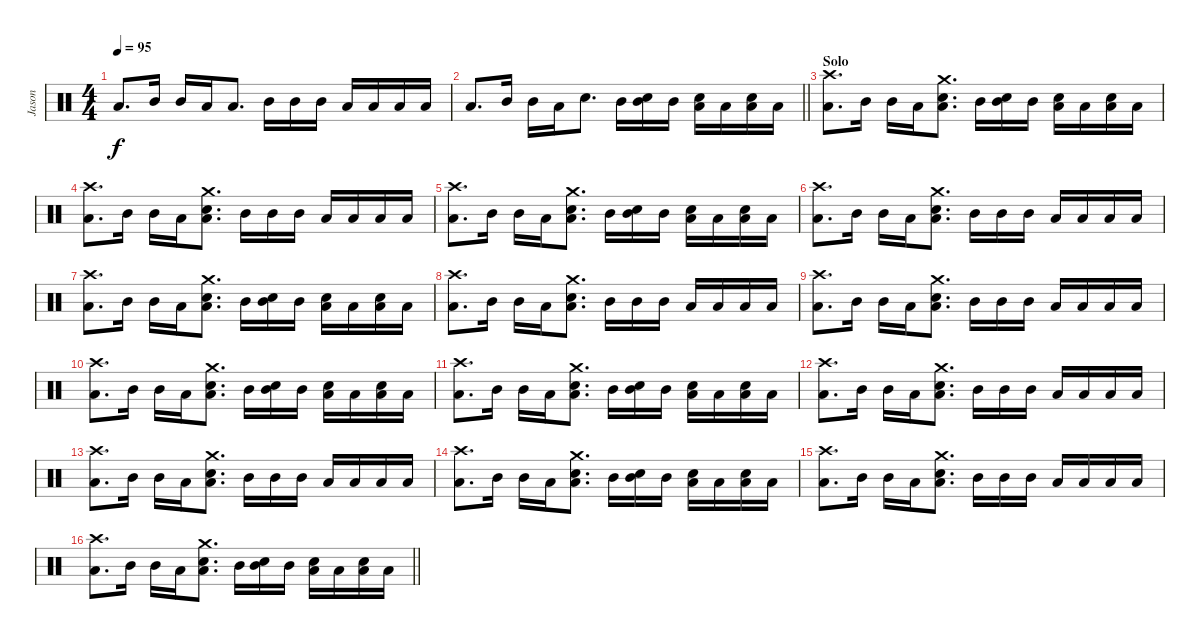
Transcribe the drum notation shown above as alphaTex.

\track ("Jason" "Jason") {instrument percussion}
\staff {score}
\articulation defaults
\ts (4 4)
\tempo 95
\clef neutral
\ks c "Low Floor Tom (hit)".8{d dy f} "Mid Tom (hit)".16 "Mid Tom (hit)".16 "Low Tom (hit)".16 "Low Floor Tom (hit)".8{d} "Mid Tom (hit)".16 "Mid Tom (hit)".16 "Mid Tom (hit)".16 "Low Tom (hit)".16 "Low Tom (hit)".16 "Low Tom (hit)".16 "Low Tom (hit)".16
|
\barLineRight lightlight "Low Floor Tom (hit)".8{d} "Mid Tom (hit)".16 "Mid Tom (hit)".16 "Low Tom (hit)".16 "Electric Snare (hit)".8{d} "Mid Tom (hit)".16
("Mid Tom (hit)" "Electric Snare (hit)").16 "Mid Tom (hit)".16 ("Low Tom (hit)" "Electric Snare (hit)").16 "Low Tom (hit)".16 ("Low Tom (hit)" "Electric Snare (hit)").16 "Low Tom (hit)".16 |
\section ("" "Solo")
("Crash high (hit)" "Low Floor Tom (hit)").8{d} "Mid Tom (hit)".16 "Mid Tom (hit)".16 "Low Tom (hit)".16 ("Crash medium (hit)" "Electric Snare (hit)" "Low Floor Tom (hit)").8{d} "Mid Tom (hit)".16 ("Mid Tom (hit)" "Electric Snare (hit)").16 "Mid Tom (hit)".16 ("Low Tom (hit)" "Electric Snare (hit)").16 "Low Tom (hit)".16 ("Low Tom (hit)" "Electric Snare (hit)").16 "Low Tom (hit)".16 |
("Crash high (hit)" "Low Floor Tom (hit)").8{d} "Mid Tom (hit)".16 "Mid Tom (hit)".16 "Low Tom (hit)".16 ("Crash medium (hit)" "Electric Snare (hit)" "Low Floor Tom (hit)").8{d} "Mid Tom (hit)".16 "Mid Tom (hit)".16 "Mid Tom (hit)".16 "Low Tom (hit)".16 "Low Tom (hit)".16 "Low Tom (hit)".16 "Low Tom (hit)".16 |
("Crash high (hit)" "Low Floor Tom (hit)").8{d} "Mid Tom (hit)".16 "Mid Tom (hit)".16 "Low Tom (hit)".16 ("Crash medium (hit)" "Electric Snare (hit)" "Low Floor Tom (hit)").8{d} "Mid Tom (hit)".16 ("Mid Tom (hit)" "Electric Snare (hit)").16 "Mid Tom (hit)".16 ("Low Tom (hit)" "Electric Snare (hit)").16 "Low Tom (hit)".16 ("Low Tom (hit)" "Electric Snare (hit)").16 "Low Tom (hit)".16 |
("Crash high (hit)" "Low Floor Tom (hit)").8{d} "Mid Tom (hit)".16 "Mid Tom (hit)".16 "Low Tom (hit)".16 ("Crash medium (hit)" "Electric Snare (hit)" "Low Floor Tom (hit)").8{d} "Mid Tom (hit)".16 "Mid Tom (hit)".16 "Mid Tom (hit)".16 "Low Tom (hit)".16 "Low Tom (hit)".16 "Low Tom (hit)".16 "Low Tom (hit)".16 |
("Crash high (hit)" "Low Floor Tom (hit)").8{d} "Mid Tom (hit)".16 "Mid Tom (hit)".16 "Low Tom (hit)".16 ("Crash medium (hit)" "Electric Snare (hit)" "Low Floor Tom (hit)").8{d} "Mid Tom (hit)".16 ("Mid Tom (hit)" "Electric Snare (hit)").16 "Mid Tom (hit)".16 ("Low Tom (hit)" "Electric Snare (hit)").16 "Low Tom (hit)".16 ("Low Tom (hit)" "Electric Snare (hit)").16 "Low Tom (hit)".16 |
("Crash high (hit)" "Low Floor Tom (hit)").8{d} "Mid Tom (hit)".16 "Mid Tom (hit)".16 "Low Tom (hit)".16 ("Crash medium (hit)" "Electric Snare (hit)" "Low Floor Tom (hit)").8{d} "Mid Tom (hit)".16 "Mid Tom (hit)".16 "Mid Tom (hit)".16 "Low Tom (hit)".16 "Low Tom (hit)".16 "Low Tom (hit)".16 "Low Tom (hit)".16 |
("Crash high (hit)" "Low Floor Tom (hit)").8{d} "Mid Tom (hit)".16 "Mid Tom (hit)".16 "Low Tom (hit)".16 ("Crash medium (hit)" "Electric Snare (hit)" "Low Floor Tom (hit)").8{d} "Mid Tom (hit)".16 "Mid Tom (hit)".16 "Mid Tom (hit)".16 "Low Tom (hit)".16 "Low Tom (hit)".16 "Low Tom (hit)".16 "Low Tom (hit)".16 |
("Crash high (hit)" "Low Floor Tom (hit)").8{d} "Mid Tom (hit)".16 "Mid Tom (hit)".16 "Low Tom (hit)".16 ("Crash medium (hit)" "Electric Snare (hit)" "Low Floor Tom (hit)").8{d} "Mid Tom (hit)".16 ("Mid Tom (hit)" "Electric Snare (hit)").16 "Mid Tom (hit)".16 ("Low Tom (hit)" "Electric Snare (hit)").16 "Low Tom (hit)".16 ("Low Tom (hit)" "Electric Snare (hit)").16 "Low Tom (hit)".16 |
("Crash high (hit)" "Low Floor Tom (hit)").8{d} "Mid Tom (hit)".16 "Mid Tom (hit)".16 "Low Tom (hit)".16 ("Crash medium (hit)" "Electric Snare (hit)" "Low Floor Tom (hit)").8{d} "Mid Tom (hit)".16 ("Mid Tom (hit)" "Electric Snare (hit)").16 "Mid Tom (hit)".16 ("Low Tom (hit)" "Electric Snare (hit)").16 "Low Tom (hit)".16 ("Low Tom (hit)" "Electric Snare (hit)").16 "Low Tom (hit)".16 |
("Crash high (hit)" "Low Floor Tom (hit)").8{d} "Mid Tom (hit)".16 "Mid Tom (hit)".16 "Low Tom (hit)".16 ("Crash medium (hit)" "Electric Snare (hit)" "Low Floor Tom (hit)").8{d} "Mid Tom (hit)".16 "Mid Tom (hit)".16 "Mid Tom (hit)".16 "Low Tom (hit)".16 "Low Tom (hit)".16 "Low Tom (hit)".16 "Low Tom (hit)".16 |
("Crash high (hit)" "Low Floor Tom (hit)").8{d} "Mid Tom (hit)".16 "Mid Tom (hit)".16 "Low Tom (hit)".16 ("Crash medium (hit)" "Electric Snare (hit)" "Low Floor Tom (hit)").8{d} "Mid Tom (hit)".16 "Mid Tom (hit)".16 "Mid Tom (hit)".16 "Low Tom (hit)".16 "Low Tom (hit)".16 "Low Tom (hit)".16 "Low Tom (hit)".16 |
("Crash high (hit)" "Low Floor Tom (hit)").8{d} "Mid Tom (hit)".16 "Mid Tom (hit)".16 "Low Tom (hit)".16 ("Crash medium (hit)" "Electric Snare (hit)" "Low Floor Tom (hit)").8{d} "Mid Tom (hit)".16 ("Mid Tom (hit)" "Electric Snare (hit)").16 "Mid Tom (hit)".16 ("Low Tom (hit)" "Electric Snare (hit)").16 "Low Tom (hit)".16 ("Low Tom (hit)" "Electric Snare (hit)").16 "Low Tom (hit)".16 |
("Crash high (hit)" "Low Floor Tom (hit)").8{d} "Mid Tom (hit)".16 "Mid Tom (hit)".16 "Low Tom (hit)".16 ("Crash medium (hit)" "Electric Snare (hit)" "Low Floor Tom (hit)").8{d} "Mid Tom (hit)".16 "Mid Tom (hit)".16 "Mid Tom (hit)".16 "Low Tom (hit)".16 "Low Tom (hit)".16 "Low Tom (hit)".16 "Low Tom (hit)".16 |
\barLineRight lightlight
("Crash high (hit)" "Low Floor Tom (hit)").8{d} "Mid Tom (hit)".16 "Mid Tom (hit)".16 "Low Tom (hit)".16 ("Crash medium (hit)" "Electric Snare (hit)" "Low Floor Tom (hit)").8{d} "Mid Tom (hit)".16 ("Mid Tom (hit)" "Electric Snare (hit)").16 "Mid Tom (hit)".16 ("Low Tom (hit)" "Electric Snare (hit)").16 "Low Tom (hit)".16 ("Low Tom (hit)" "Electric Snare (hit)").16 "Low Tom (hit)".16
